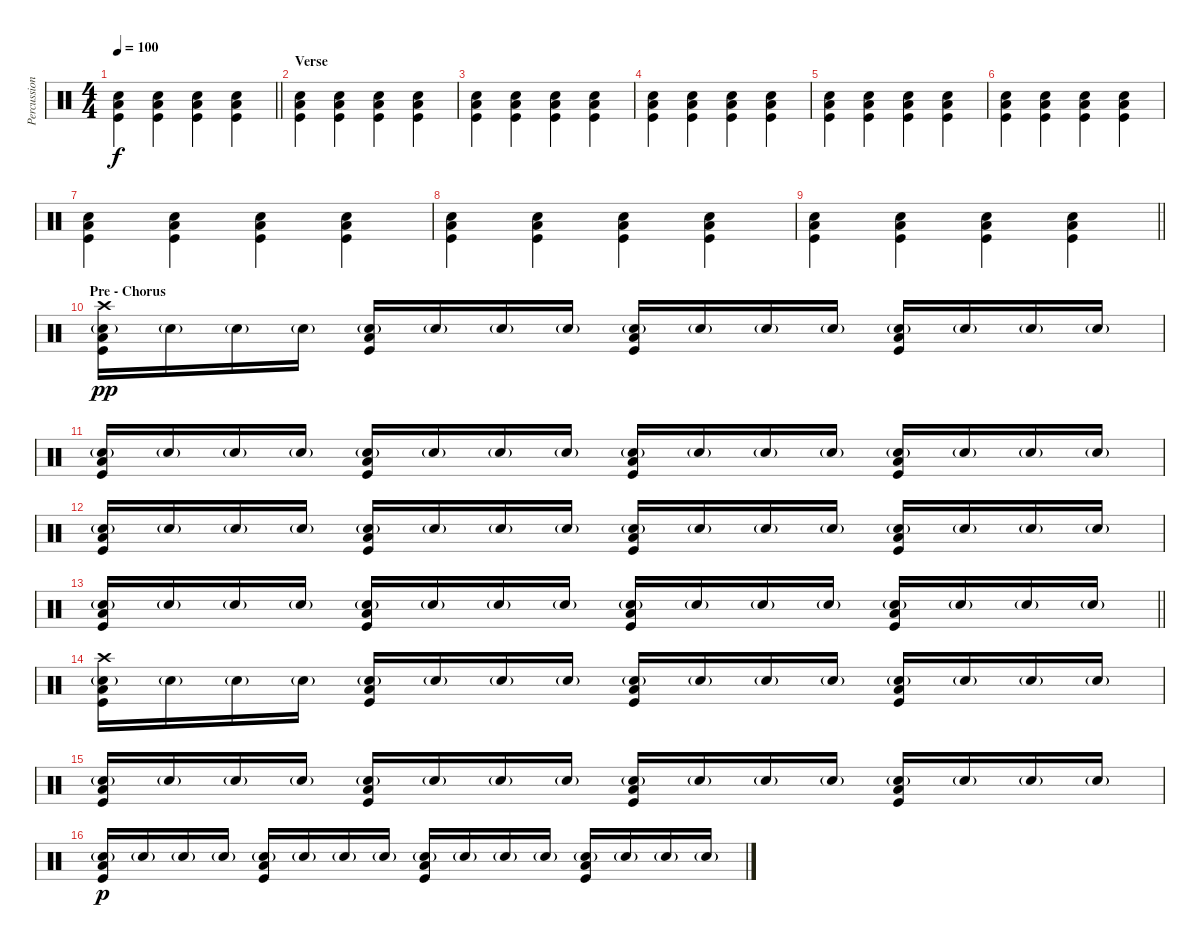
\track ("Percussion" "Percussion") {instrument percussion}
\staff {score}
\articulation defaults
\ts (4 4)
\tempo 100
\clef neutral
\barLineRight lightlight
\ks c
("Electric Snare (hit)" "Kick (hit)" "Low Floor Tom (hit)").4{dy f} ("Electric Snare (hit)" "Kick (hit)" "Low Floor Tom (hit)").4 ("Electric Snare (hit)" "Kick (hit)" "Low Floor Tom (hit)").4 ("Electric Snare (hit)" "Kick (hit)" "Low Floor Tom (hit)").4 |
\section ("" "Verse")
("Electric Snare (hit)" "Kick (hit)" "Low Floor Tom (hit)").4 ("Electric Snare (hit)" "Kick (hit)" "Low Floor Tom (hit)").4 ("Electric Snare (hit)" "Kick (hit)" "Low Floor Tom (hit)").4 ("Electric Snare (hit)" "Kick (hit)" "Low Floor Tom (hit)").4 |
("Electric Snare (hit)" "Kick (hit)" "Low Floor Tom (hit)").4 ("Electric Snare (hit)" "Kick (hit)" "Low Floor Tom (hit)").4 ("Electric Snare (hit)" "Kick (hit)" "Low Floor Tom (hit)").4 ("Electric Snare (hit)" "Kick (hit)" "Low Floor Tom (hit)").4 |
("Electric Snare (hit)" "Kick (hit)" "Low Floor Tom (hit)").4 ("Electric Snare (hit)" "Kick (hit)" "Low Floor Tom (hit)").4 ("Electric Snare (hit)" "Kick (hit)" "Low Floor Tom (hit)").4 ("Electric Snare (hit)" "Kick (hit)" "Low Floor Tom (hit)").4 |
("Electric Snare (hit)" "Kick (hit)" "Low Floor Tom (hit)").4 ("Electric Snare (hit)" "Kick (hit)" "Low Floor Tom (hit)").4 ("Electric Snare (hit)" "Kick (hit)" "Low Floor Tom (hit)").4 ("Electric Snare (hit)" "Kick (hit)" "Low Floor Tom (hit)").4 |
("Electric Snare (hit)" "Kick (hit)" "Low Floor Tom (hit)").4 ("Electric Snare (hit)" "Kick (hit)" "Low Floor Tom (hit)").4 ("Electric Snare (hit)" "Kick (hit)" "Low Floor Tom (hit)").4 ("Electric Snare (hit)" "Kick (hit)" "Low Floor Tom (hit)").4 |
("Electric Snare (hit)" "Kick (hit)" "Low Floor Tom (hit)").4 ("Electric Snare (hit)" "Kick (hit)" "Low Floor Tom (hit)").4 ("Electric Snare (hit)" "Kick (hit)" "Low Floor Tom (hit)").4 ("Electric Snare (hit)" "Kick (hit)" "Low Floor Tom (hit)").4 |
("Electric Snare (hit)" "Kick (hit)" "Low Floor Tom (hit)").4 ("Electric Snare (hit)" "Kick (hit)" "Low Floor Tom (hit)").4 ("Electric Snare (hit)" "Kick (hit)" "Low Floor Tom (hit)").4 ("Electric Snare (hit)" "Kick (hit)" "Low Floor Tom (hit)").4 |
\barLineRight lightlight
("Electric Snare (hit)" "Kick (hit)" "Low Floor Tom (hit)").4 ("Electric Snare (hit)" "Kick (hit)" "Low Floor Tom (hit)").4 ("Electric Snare (hit)" "Kick (hit)" "Low Floor Tom (hit)").4 ("Electric Snare (hit)" "Kick (hit)" "Low Floor Tom (hit)").4 |
\section ("" "Pre - Chorus")
("Snare (hit) 2"{g} "Kick (hit)" "Low Floor Tom (hit)" "Crash high (hit)").16{dy pp} "Snare (hit) 2"{g}.16 "Snare (hit) 2"{g}.16 "Snare (hit) 2"{g}.16 ("Snare (hit) 2"{g} "Kick (hit)" "Low Floor Tom (hit)").16 "Snare (hit) 2"{g}.16 "Snare (hit) 2"{g}.16 "Snare (hit) 2"{g}.16 ("Snare (hit) 2"{g} "Kick (hit)" "Low Floor Tom (hit)").16 "Snare (hit) 2"{g}.16 "Snare (hit) 2"{g}.16 "Snare (hit) 2"{g}.16 ("Snare (hit) 2"{g} "Kick (hit)" "Low Floor Tom (hit)").16 "Snare (hit) 2"{g}.16 "Snare (hit) 2"{g}.16 "Snare (hit) 2"{g}.16 |
("Snare (hit) 2"{g} "Kick (hit)" "Low Floor Tom (hit)").16 "Snare (hit) 2"{g}.16 "Snare (hit) 2"{g}.16 "Snare (hit) 2"{g}.16 ("Snare (hit) 2"{g} "Kick (hit)" "Low Floor Tom (hit)").16 "Snare (hit) 2"{g}.16 "Snare (hit) 2"{g}.16 "Snare (hit) 2"{g}.16 ("Snare (hit) 2"{g} "Kick (hit)" "Low Floor Tom (hit)").16 "Snare (hit) 2"{g}.16 "Snare (hit) 2"{g}.16 "Snare (hit) 2"{g}.16 ("Snare (hit) 2"{g} "Kick (hit)" "Low Floor Tom (hit)").16 "Snare (hit) 2"{g}.16 "Snare (hit) 2"{g}.16 "Snare (hit) 2"{g}.16 |
("Snare (hit) 2"{g} "Kick (hit)" "Low Floor Tom (hit)").16 "Snare (hit) 2"{g}.16 "Snare (hit) 2"{g}.16 "Snare (hit) 2"{g}.16 ("Snare (hit) 2"{g} "Kick (hit)" "Low Floor Tom (hit)").16 "Snare (hit) 2"{g}.16 "Snare (hit) 2"{g}.16 "Snare (hit) 2"{g}.16 ("Snare (hit) 2"{g} "Kick (hit)" "Low Floor Tom (hit)").16 "Snare (hit) 2"{g}.16 "Snare (hit) 2"{g}.16 "Snare (hit) 2"{g}.16 ("Snare (hit) 2"{g} "Kick (hit)" "Low Floor Tom (hit)").16 "Snare (hit) 2"{g}.16 "Snare (hit) 2"{g}.16 "Snare (hit) 2"{g}.16 |
\barLineRight lightlight
("Snare (hit) 2"{g} "Kick (hit)" "Low Floor Tom (hit)").16 "Snare (hit) 2"{g}.16 "Snare (hit) 2"{g}.16 "Snare (hit) 2"{g}.16 ("Snare (hit) 2"{g} "Kick (hit)" "Low Floor Tom (hit)").16 "Snare (hit) 2"{g}.16 "Snare (hit) 2"{g}.16 "Snare (hit) 2"{g}.16 ("Snare (hit) 2"{g} "Kick (hit)" "Low Floor Tom (hit)").16 "Snare (hit) 2"{g}.16 "Snare (hit) 2"{g}.16 "Snare (hit) 2"{g}.16 ("Snare (hit) 2"{g} "Kick (hit)" "Low Floor Tom (hit)").16 "Snare (hit) 2"{g}.16 "Snare (hit) 2"{g}.16 "Snare (hit) 2"{g}.16 |
("Snare (hit) 2"{g} "Kick (hit)" "Low Floor Tom (hit)" "Crash high (hit)").16 "Snare (hit) 2"{g}.16 "Snare (hit) 2"{g}.16 "Snare (hit) 2"{g}.16 ("Snare (hit) 2"{g} "Kick (hit)" "Low Floor Tom (hit)").16 "Snare (hit) 2"{g}.16 "Snare (hit) 2"{g}.16 "Snare (hit) 2"{g}.16 ("Snare (hit) 2"{g} "Kick (hit)" "Low Floor Tom (hit)").16 "Snare (hit) 2"{g}.16 "Snare (hit) 2"{g}.16 "Snare (hit) 2"{g}.16 ("Snare (hit) 2"{g} "Kick (hit)" "Low Floor Tom (hit)").16 "Snare (hit) 2"{g}.16 "Snare (hit) 2"{g}.16 "Snare (hit) 2"{g}.16 |
("Snare (hit) 2"{g} "Kick (hit)" "Low Floor Tom (hit)").16 "Snare (hit) 2"{g}.16 "Snare (hit) 2"{g}.16 "Snare (hit) 2"{g}.16 ("Snare (hit) 2"{g} "Kick (hit)" "Low Floor Tom (hit)").16 "Snare (hit) 2"{g}.16 "Snare (hit) 2"{g}.16 "Snare (hit) 2"{g}.16 ("Snare (hit) 2"{g} "Kick (hit)" "Low Floor Tom (hit)").16 "Snare (hit) 2"{g}.16 "Snare (hit) 2"{g}.16 "Snare (hit) 2"{g}.16 ("Snare (hit) 2"{g} "Kick (hit)" "Low Floor Tom (hit)").16 "Snare (hit) 2"{g}.16 "Snare (hit) 2"{g}.16 "Snare (hit) 2"{g}.16 |
("Snare (hit) 2"{g} "Kick (hit)" "Low Floor Tom (hit)").16{dy p} "Snare (hit) 2"{g}.16 "Snare (hit) 2"{g}.16 "Snare (hit) 2"{g}.16 ("Snare (hit) 2"{g} "Kick (hit)" "Low Floor Tom (hit)").16 "Snare (hit) 2"{g}.16 "Snare (hit) 2"{g}.16 "Snare (hit) 2"{g}.16 ("Snare (hit) 2"{g} "Kick (hit)" "Low Floor Tom (hit)").16 "Snare (hit) 2"{g}.16 "Snare (hit) 2"{g}.16 "Snare (hit) 2"{g}.16 ("Snare (hit) 2"{g} "Kick (hit)" "Low Floor Tom (hit)").16 "Snare (hit) 2"{g}.16 "Snare (hit) 2"{g}.16 "Snare (hit) 2"{g}.16
